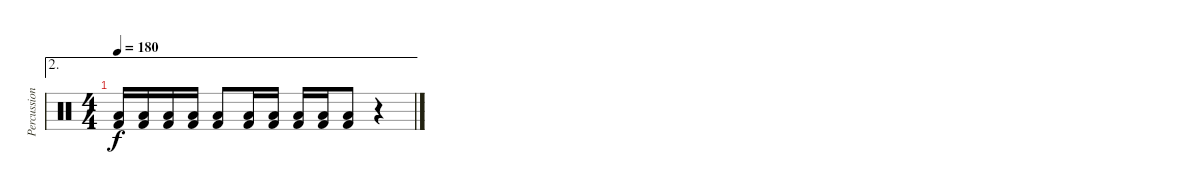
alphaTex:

\track ("Percussions" "Percussion") {instrument percussion}
\staff {score}
\articulation defaults
\ae 2
\ts (4 4)
\tempo 180
\clef neutral
\ks c
("Low Floor Tom (hit)" "Kick (hit) 2").16{dy f} ("Low Floor Tom (hit)" "Kick (hit) 2").16 ("Low Floor Tom (hit)" "Kick (hit) 2").16 ("Low Floor Tom (hit)" "Kick (hit) 2").16 ("Low Floor Tom (hit)" "Kick (hit) 2").8 ("Low Floor Tom (hit)" "Kick (hit) 2").16 ("Low Floor Tom (hit)" "Kick (hit) 2").16 ("Low Floor Tom (hit)" "Kick (hit) 2").16 ("Low Floor Tom (hit)" "Kick (hit) 2").16 ("Low Floor Tom (hit)" "Kick (hit) 2").8 r.4
